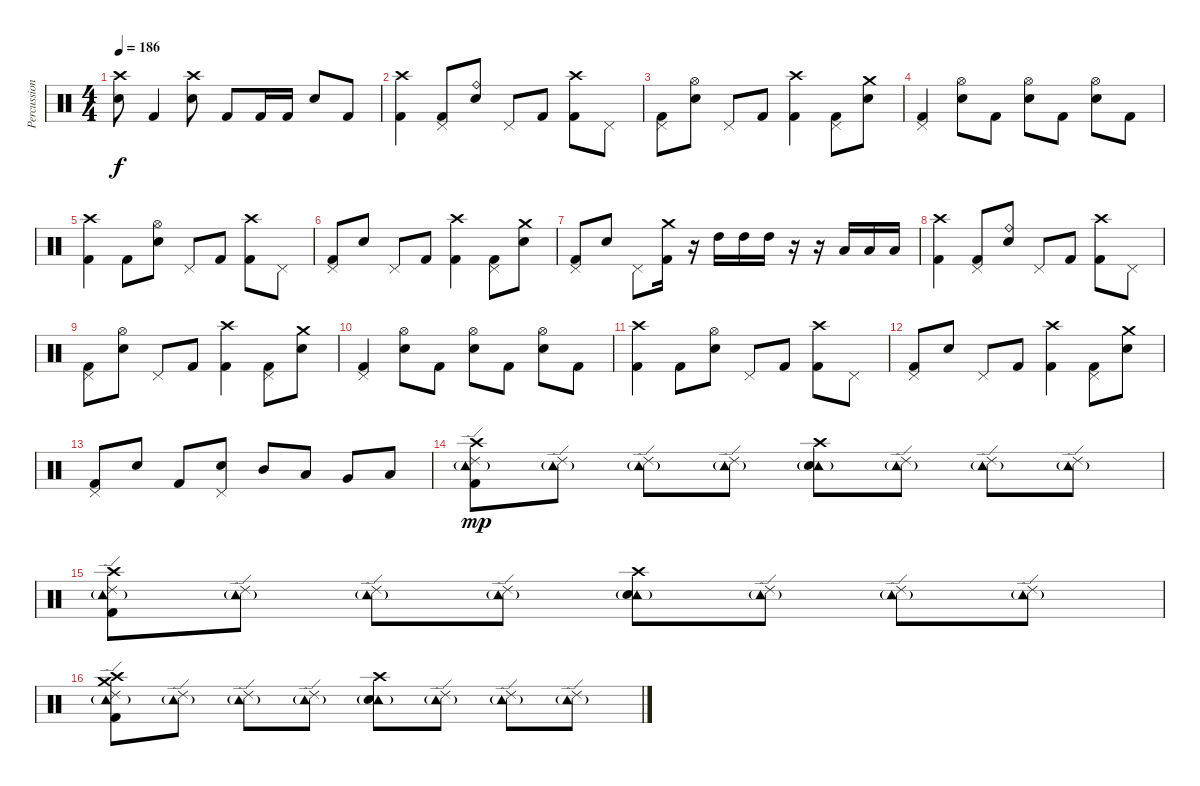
\track ("Percussion" "Percussion") {instrument percussion}
\staff {score}
\articulation defaults
\ts (4 4)
\tempo 186
\clef neutral
\ks c
("Crash high (hit)" "Electric Snare (hit)").8{dy f} "Kick (hit) 2".4 ("Crash high (hit)" "Electric Snare (hit)").8 "Kick (hit) 2".8 "Kick (hit) 2".16 "Kick (hit) 2".16 "Electric Snare (hit)".8 "Kick (hit) 2".8 |
("Crash high (hit)" "Kick (hit) 2").4 ("Pedal Hi-Hat (hit)" "Kick (hit) 2").8 ("Ride (bell)" "Electric Snare (hit)").8 "Pedal Hi-Hat (hit)".8 "Kick (hit) 2".8 ("Crash high (hit)" "Kick (hit) 2").8 "Pedal Hi-Hat (hit)".8 |
("Pedal Hi-Hat (hit)" "Kick (hit) 2").8 ("Hi-Hat (open)" "Electric Snare (hit)").8 "Pedal Hi-Hat (hit)".8 "Kick (hit) 2".8 ("Crash high (hit)" "Kick (hit) 2").4 ("Pedal Hi-Hat (hit)" "Kick (hit) 2").8 ("Crash medium (hit)" "Electric Snare (hit)").8 |
("Pedal Hi-Hat (hit)" "Kick (hit) 2").4 ("Hi-Hat (open)" "Electric Snare (hit)").8 "Kick (hit) 2".8 ("Hi-Hat (open)" "Electric Snare (hit)").8 "Kick (hit) 2".8 ("Hi-Hat (open)" "Electric Snare (hit)").8 "Kick (hit) 2".8 |
("Crash high (hit)" "Kick (hit) 2").4 "Kick (hit) 2".8 ("Hi-Hat (open)" "Electric Snare (hit)").8 "Pedal Hi-Hat (hit)".8 "Kick (hit) 2".8 ("Crash high (hit)" "Kick (hit) 2").8 "Pedal Hi-Hat (hit)".8 |
("Pedal Hi-Hat (hit)" "Kick (hit) 2").8 "Electric Snare (hit)".8 "Pedal Hi-Hat (hit)".8 "Kick (hit) 2".8 ("Crash high (hit)" "Kick (hit) 2").4 ("Pedal Hi-Hat (hit)" "Kick (hit) 2").8 ("Crash medium (hit)" "Electric Snare (hit)").8 |
("Pedal Hi-Hat (hit)" "Kick (hit) 2").8 "Electric Snare (hit)".8 "Pedal Hi-Hat (hit)".8 ("Crash medium (hit)" "Kick (hit) 2").16 r.16 "High Tom (hit)".16 "High Tom (hit)".16 "High Tom (hit)".16 r.16 r.16 "Low Tom (hit)".16 "Low Tom (hit)".16 "Low Tom (hit)".16 |
("Crash high (hit)" "Kick (hit) 2").4 ("Pedal Hi-Hat (hit)" "Kick (hit) 2").8 ("Ride (bell)" "Electric Snare (hit)").8 "Pedal Hi-Hat (hit)".8 "Kick (hit) 2".8 ("Crash high (hit)" "Kick (hit) 2").8 "Pedal Hi-Hat (hit)".8 |
("Pedal Hi-Hat (hit)" "Kick (hit) 2").8 ("Hi-Hat (open)" "Electric Snare (hit)").8 "Pedal Hi-Hat (hit)".8 "Kick (hit) 2".8 ("Crash high (hit)" "Kick (hit) 2").4 ("Pedal Hi-Hat (hit)" "Kick (hit) 2").8 ("Crash medium (hit)" "Electric Snare (hit)").8 |
("Pedal Hi-Hat (hit)" "Kick (hit) 2").4 ("Hi-Hat (open)" "Electric Snare (hit)").8 "Kick (hit) 2".8 ("Hi-Hat (open)" "Electric Snare (hit)").8 "Kick (hit) 2".8 ("Hi-Hat (open)" "Electric Snare (hit)").8 "Kick (hit) 2".8 |
("Crash high (hit)" "Kick (hit) 2").4 "Kick (hit) 2".8 ("Hi-Hat (open)" "Electric Snare (hit)").8 "Pedal Hi-Hat (hit)".8 "Kick (hit) 2".8 ("Crash high (hit)" "Kick (hit) 2").8 "Pedal Hi-Hat (hit)".8 |
("Pedal Hi-Hat (hit)" "Kick (hit) 2").8 "Electric Snare (hit)".8 "Pedal Hi-Hat (hit)".8 "Kick (hit) 2".8 ("Crash high (hit)" "Kick (hit) 2").4 ("Pedal Hi-Hat (hit)" "Kick (hit) 2").8 ("Crash medium (hit)" "Electric Snare (hit)").8 |
("Pedal Hi-Hat (hit)" "Kick (hit) 2").8 "Electric Snare (hit)".8 "Kick (hit) 2".8 ("Pedal Hi-Hat (hit)" "Electric Snare (hit)").8 "Mid Tom (hit)".8 "Low Tom (hit)".8 "Very Low Tom (hit)".8 "Low Floor Tom (hit)".8 |
("Ride (edge) 2" "Tambourine (hit)"{g} "Crash high (hit)" "Kick (hit) 2").8{dy mp} ("Ride (edge) 2" "Tambourine (hit)"{g}).8 ("Ride (edge) 2" "Tambourine (hit)"{g}).8 ("Ride (edge) 2" "Tambourine (hit)"{g}).8 ("Crash high (hit)" "Tambourine (hit)"{g} "Electric Snare (hit)").8 ("Ride (edge) 2" "Tambourine (hit)"{g}).8 ("Ride (edge) 2" "Tambourine (hit)"{g}).8 ("Ride (edge) 2" "Tambourine (hit)"{g}).8 |
("Ride (edge) 2" "Tambourine (hit)"{g} "Crash high (hit)" "Kick (hit) 2").8 ("Ride (edge) 2" "Tambourine (hit)"{g}).8 ("Ride (edge) 2" "Tambourine (hit)"{g}).8 ("Ride (edge) 2" "Tambourine (hit)"{g}).8 ("Crash high (hit)" "Tambourine (hit)"{g} "Electric Snare (hit)").8 ("Ride (edge) 2" "Tambourine (hit)"{g}).8 ("Ride (edge) 2" "Tambourine (hit)"{g}).8 ("Ride (edge) 2" "Tambourine (hit)"{g}).8 |
("Ride (edge) 2" "Tambourine (hit)"{g} "Crash high (hit)" "Crash medium (hit)" "Kick (hit) 2").8 ("Ride (edge) 2" "Tambourine (hit)"{g}).8 ("Ride (edge) 2" "Tambourine (hit)"{g}).8 ("Ride (edge) 2" "Tambourine (hit)"{g}).8 ("Crash high (hit)" "Tambourine (hit)"{g} "Electric Snare (hit)").8 ("Ride (edge) 2" "Tambourine (hit)"{g}).8 ("Ride (edge) 2" "Tambourine (hit)"{g}).8 ("Ride (edge) 2" "Tambourine (hit)"{g}).8
